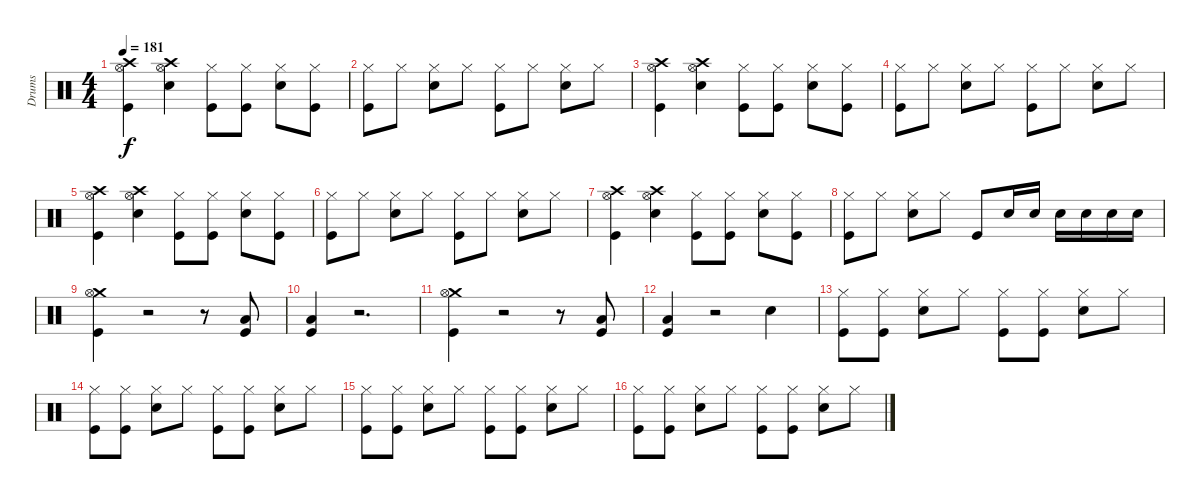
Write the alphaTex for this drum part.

\track ("Drums" "Drums") {instrument percussion}
\staff {score}
\articulation defaults
\ts (4 4)
\tempo 181
\clef neutral
\ks c
("Crash high (hit)" "Hi-Hat (open)" "Kick (hit)").4{dy f} ("Crash high (hit)" "Hi-Hat (open)" "Snare (hit) 2").4 ("Hi-Hat (closed)" "Kick (hit)").8 ("Hi-Hat (closed)" "Kick (hit)").8 ("Hi-Hat (closed)" "Snare (hit) 2").8 ("Hi-Hat (closed)" "Kick (hit)").8 |
("Hi-Hat (closed)" "Kick (hit)").8 "Hi-Hat (closed)".8 ("Hi-Hat (closed)" "Snare (hit) 2").8 "Hi-Hat (closed)".8 ("Hi-Hat (closed)" "Kick (hit)").8 "Hi-Hat (closed)".8 ("Hi-Hat (closed)" "Snare (hit) 2").8 "Hi-Hat (closed)".8 |
("Crash high (hit)" "Hi-Hat (open)" "Kick (hit)").4 ("Crash high (hit)" "Hi-Hat (open)" "Snare (hit) 2").4 ("Hi-Hat (closed)" "Kick (hit)").8 ("Hi-Hat (closed)" "Kick (hit)").8 ("Hi-Hat (closed)" "Snare (hit) 2").8 ("Hi-Hat (closed)" "Kick (hit)").8 |
("Hi-Hat (closed)" "Kick (hit)").8 "Hi-Hat (closed)".8 ("Hi-Hat (closed)" "Snare (hit) 2").8 "Hi-Hat (closed)".8 ("Hi-Hat (closed)" "Kick (hit)").8 "Hi-Hat (closed)".8 ("Hi-Hat (closed)" "Snare (hit) 2").8 "Hi-Hat (closed)".8 |
("Crash high (hit)" "Hi-Hat (open)" "Kick (hit)").4 ("Crash high (hit)" "Hi-Hat (open)" "Snare (hit) 2").4 ("Hi-Hat (closed)" "Kick (hit)").8 ("Hi-Hat (closed)" "Kick (hit)").8 ("Hi-Hat (closed)" "Snare (hit) 2").8 ("Hi-Hat (closed)" "Kick (hit)").8 |
("Hi-Hat (closed)" "Kick (hit)").8 "Hi-Hat (closed)".8 ("Hi-Hat (closed)" "Snare (hit) 2").8 "Hi-Hat (closed)".8 ("Hi-Hat (closed)" "Kick (hit)").8 "Hi-Hat (closed)".8 ("Hi-Hat (closed)" "Snare (hit) 2").8 "Hi-Hat (closed)".8 |
("Crash high (hit)" "Hi-Hat (open)" "Kick (hit)").4 ("Crash high (hit)" "Hi-Hat (open)" "Snare (hit) 2").4 ("Hi-Hat (closed)" "Kick (hit)").8 ("Hi-Hat (closed)" "Kick (hit)").8 ("Hi-Hat (closed)" "Snare (hit) 2").8 ("Hi-Hat (closed)" "Kick (hit)").8 |
("Hi-Hat (closed)" "Kick (hit)").8 "Hi-Hat (closed)".8 ("Hi-Hat (closed)" "Snare (hit) 2").8 "Hi-Hat (closed)".8 "Kick (hit)".8 "Snare (hit) 2".16 "Snare (hit) 2".16 "Snare (hit) 2".16 "Snare (hit) 2".16 "Snare (hit) 2".16 "Snare (hit) 2".16 |
("Crash medium (hit)" "Hi-Hat (open)" "Kick (hit)").4 r.2 r.8 ("Low Tom (hit)" "Kick (hit)").8 |
("Low Tom (hit)" "Kick (hit)").4 r.2{d} |
("Crash medium (hit)" "Hi-Hat (open)" "Kick (hit)").4 r.2 r.8 ("Low Tom (hit)" "Kick (hit)").8 |
("Low Tom (hit)" "Kick (hit)").4 r.2 "Snare (hit) 2".4 |
("Hi-Hat (closed)" "Kick (hit)").8 ("Hi-Hat (closed)" "Kick (hit)").8 ("Hi-Hat (closed)" "Snare (hit) 2").8 "Hi-Hat (closed)".8 ("Hi-Hat (closed)" "Kick (hit)").8 ("Hi-Hat (closed)" "Kick (hit)").8 ("Hi-Hat (closed)" "Snare (hit) 2").8 "Hi-Hat (closed)".8 |
("Hi-Hat (closed)" "Kick (hit)").8 ("Hi-Hat (closed)" "Kick (hit)").8 ("Hi-Hat (closed)" "Snare (hit) 2").8 "Hi-Hat (closed)".8 ("Hi-Hat (closed)" "Kick (hit)").8 ("Hi-Hat (closed)" "Kick (hit)").8 ("Hi-Hat (closed)" "Snare (hit) 2").8 "Hi-Hat (closed)".8 |
("Hi-Hat (closed)" "Kick (hit)").8 ("Hi-Hat (closed)" "Kick (hit)").8 ("Hi-Hat (closed)" "Snare (hit) 2").8 "Hi-Hat (closed)".8 ("Hi-Hat (closed)" "Kick (hit)").8 ("Hi-Hat (closed)" "Kick (hit)").8 ("Hi-Hat (closed)" "Snare (hit) 2").8 "Hi-Hat (closed)".8 |
("Hi-Hat (closed)" "Kick (hit)").8 ("Hi-Hat (closed)" "Kick (hit)").8 ("Hi-Hat (closed)" "Snare (hit) 2").8 "Hi-Hat (closed)".8 ("Hi-Hat (closed)" "Kick (hit)").8 ("Hi-Hat (closed)" "Kick (hit)").8 ("Hi-Hat (closed)" "Snare (hit) 2").8 "Hi-Hat (closed)".8
